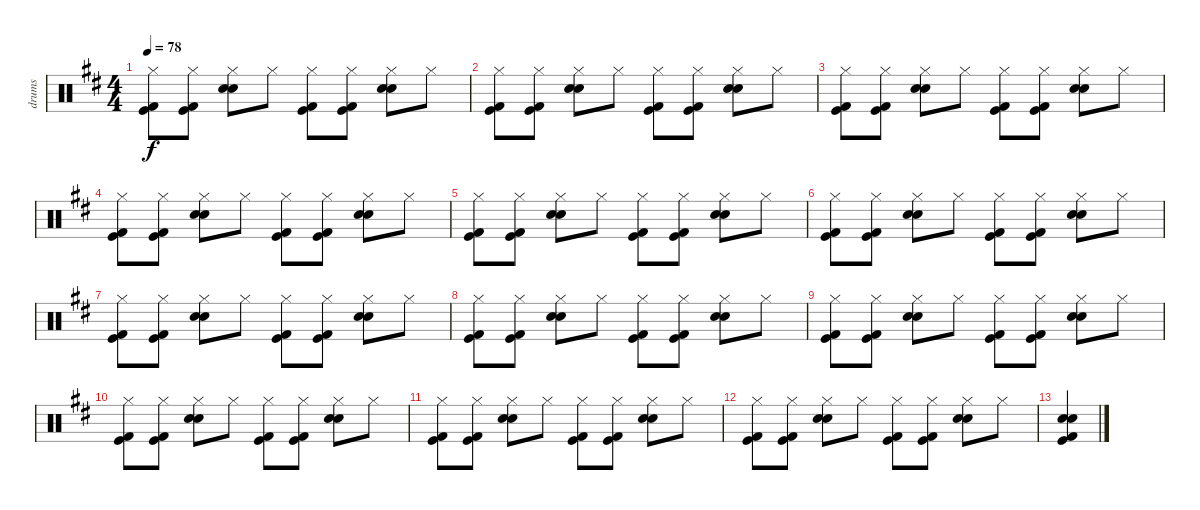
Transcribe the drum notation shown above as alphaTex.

\track ("drums" "drums") {instrument percussion}
\staff {score}
\articulation defaults
\ts (4 4)
\tempo 78
\clef neutral
\ks d
("Kick (hit)" "Kick (hit) 2" "Hi-Hat (closed)").8{dy f} ("Kick (hit)" "Kick (hit) 2" "Hi-Hat (closed)").8 ("Electric Snare (hit)" "Snare (hit) 2" "Hi-Hat (closed)").8 "Hi-Hat (closed)".8 ("Kick (hit)" "Kick (hit) 2" "Hi-Hat (closed)").8 ("Kick (hit)" "Kick (hit) 2" "Hi-Hat (closed)").8 ("Electric Snare (hit)" "Snare (hit) 2" "Hi-Hat (closed)").8 "Hi-Hat (closed)".8 |
("Kick (hit)" "Kick (hit) 2" "Hi-Hat (closed)").8 ("Kick (hit)" "Kick (hit) 2" "Hi-Hat (closed)").8 ("Electric Snare (hit)" "Snare (hit) 2" "Hi-Hat (closed)").8 "Hi-Hat (closed)".8 ("Kick (hit)" "Kick (hit) 2" "Hi-Hat (closed)").8 ("Kick (hit)" "Kick (hit) 2" "Hi-Hat (closed)").8 ("Electric Snare (hit)" "Snare (hit) 2" "Hi-Hat (closed)").8 "Hi-Hat (closed)".8 |
("Kick (hit)" "Kick (hit) 2" "Hi-Hat (closed)").8 ("Kick (hit)" "Kick (hit) 2" "Hi-Hat (closed)").8 ("Electric Snare (hit)" "Snare (hit) 2" "Hi-Hat (closed)").8 "Hi-Hat (closed)".8 ("Kick (hit)" "Kick (hit) 2" "Hi-Hat (closed)").8 ("Kick (hit)" "Kick (hit) 2" "Hi-Hat (closed)").8 ("Electric Snare (hit)" "Snare (hit) 2" "Hi-Hat (closed)").8 "Hi-Hat (closed)".8 |
("Kick (hit)" "Kick (hit) 2" "Hi-Hat (closed)").8 ("Kick (hit)" "Kick (hit) 2" "Hi-Hat (closed)").8 ("Electric Snare (hit)" "Snare (hit) 2" "Hi-Hat (closed)").8 "Hi-Hat (closed)".8 ("Kick (hit)" "Kick (hit) 2" "Hi-Hat (closed)").8 ("Kick (hit)" "Kick (hit) 2" "Hi-Hat (closed)").8 ("Electric Snare (hit)" "Snare (hit) 2" "Hi-Hat (closed)").8 "Hi-Hat (closed)".8 |
("Kick (hit)" "Kick (hit) 2" "Hi-Hat (closed)").8 ("Kick (hit)" "Kick (hit) 2" "Hi-Hat (closed)").8 ("Electric Snare (hit)" "Snare (hit) 2" "Hi-Hat (closed)").8 "Hi-Hat (closed)".8 ("Kick (hit)" "Kick (hit) 2" "Hi-Hat (closed)").8 ("Kick (hit)" "Kick (hit) 2" "Hi-Hat (closed)").8 ("Electric Snare (hit)" "Snare (hit) 2" "Hi-Hat (closed)").8 "Hi-Hat (closed)".8 |
("Kick (hit)" "Kick (hit) 2" "Hi-Hat (closed)").8 ("Kick (hit)" "Kick (hit) 2" "Hi-Hat (closed)").8 ("Electric Snare (hit)" "Snare (hit) 2" "Hi-Hat (closed)").8 "Hi-Hat (closed)".8 ("Kick (hit)" "Kick (hit) 2" "Hi-Hat (closed)").8 ("Kick (hit)" "Kick (hit) 2" "Hi-Hat (closed)").8 ("Electric Snare (hit)" "Snare (hit) 2" "Hi-Hat (closed)").8 "Hi-Hat (closed)".8 |
("Kick (hit)" "Kick (hit) 2" "Hi-Hat (closed)").8 ("Kick (hit)" "Kick (hit) 2" "Hi-Hat (closed)").8 ("Electric Snare (hit)" "Snare (hit) 2" "Hi-Hat (closed)").8 "Hi-Hat (closed)".8 ("Kick (hit)" "Kick (hit) 2" "Hi-Hat (closed)").8 ("Kick (hit)" "Kick (hit) 2" "Hi-Hat (closed)").8 ("Electric Snare (hit)" "Snare (hit) 2" "Hi-Hat (closed)").8 "Hi-Hat (closed)".8 |
("Kick (hit)" "Kick (hit) 2" "Hi-Hat (closed)").8 ("Kick (hit)" "Kick (hit) 2" "Hi-Hat (closed)").8 ("Electric Snare (hit)" "Snare (hit) 2" "Hi-Hat (closed)").8 "Hi-Hat (closed)".8 ("Kick (hit)" "Kick (hit) 2" "Hi-Hat (closed)").8 ("Kick (hit)" "Kick (hit) 2" "Hi-Hat (closed)").8 ("Electric Snare (hit)" "Snare (hit) 2" "Hi-Hat (closed)").8 "Hi-Hat (closed)".8 |
("Kick (hit)" "Kick (hit) 2" "Hi-Hat (closed)").8 ("Kick (hit)" "Kick (hit) 2" "Hi-Hat (closed)").8 ("Electric Snare (hit)" "Snare (hit) 2" "Hi-Hat (closed)").8 "Hi-Hat (closed)".8 ("Kick (hit)" "Kick (hit) 2" "Hi-Hat (closed)").8 ("Kick (hit)" "Kick (hit) 2" "Hi-Hat (closed)").8 ("Electric Snare (hit)" "Snare (hit) 2" "Hi-Hat (closed)").8 "Hi-Hat (closed)".8 |
("Kick (hit)" "Kick (hit) 2" "Hi-Hat (closed)").8 ("Kick (hit)" "Kick (hit) 2" "Hi-Hat (closed)").8 ("Electric Snare (hit)" "Snare (hit) 2" "Hi-Hat (closed)").8 "Hi-Hat (closed)".8 ("Kick (hit)" "Kick (hit) 2" "Hi-Hat (closed)").8 ("Kick (hit)" "Kick (hit) 2" "Hi-Hat (closed)").8 ("Electric Snare (hit)" "Snare (hit) 2" "Hi-Hat (closed)").8 "Hi-Hat (closed)".8 |
("Kick (hit)" "Kick (hit) 2" "Hi-Hat (closed)").8 ("Kick (hit)" "Kick (hit) 2" "Hi-Hat (closed)").8 ("Electric Snare (hit)" "Snare (hit) 2" "Hi-Hat (closed)").8 "Hi-Hat (closed)".8 ("Kick (hit)" "Kick (hit) 2" "Hi-Hat (closed)").8 ("Kick (hit)" "Kick (hit) 2" "Hi-Hat (closed)").8 ("Electric Snare (hit)" "Snare (hit) 2" "Hi-Hat (closed)").8 "Hi-Hat (closed)".8 |
("Kick (hit)" "Kick (hit) 2" "Hi-Hat (closed)").8 ("Kick (hit)" "Kick (hit) 2" "Hi-Hat (closed)").8 ("Electric Snare (hit)" "Snare (hit) 2" "Hi-Hat (closed)").8 "Hi-Hat (closed)".8 ("Kick (hit)" "Kick (hit) 2" "Hi-Hat (closed)").8 ("Kick (hit)" "Kick (hit) 2" "Hi-Hat (closed)").8 ("Electric Snare (hit)" "Snare (hit) 2" "Hi-Hat (closed)").8 "Hi-Hat (closed)".8 |
("Kick (hit)" "Kick (hit) 2" "Electric Snare (hit)" "Snare (hit) 2").4
